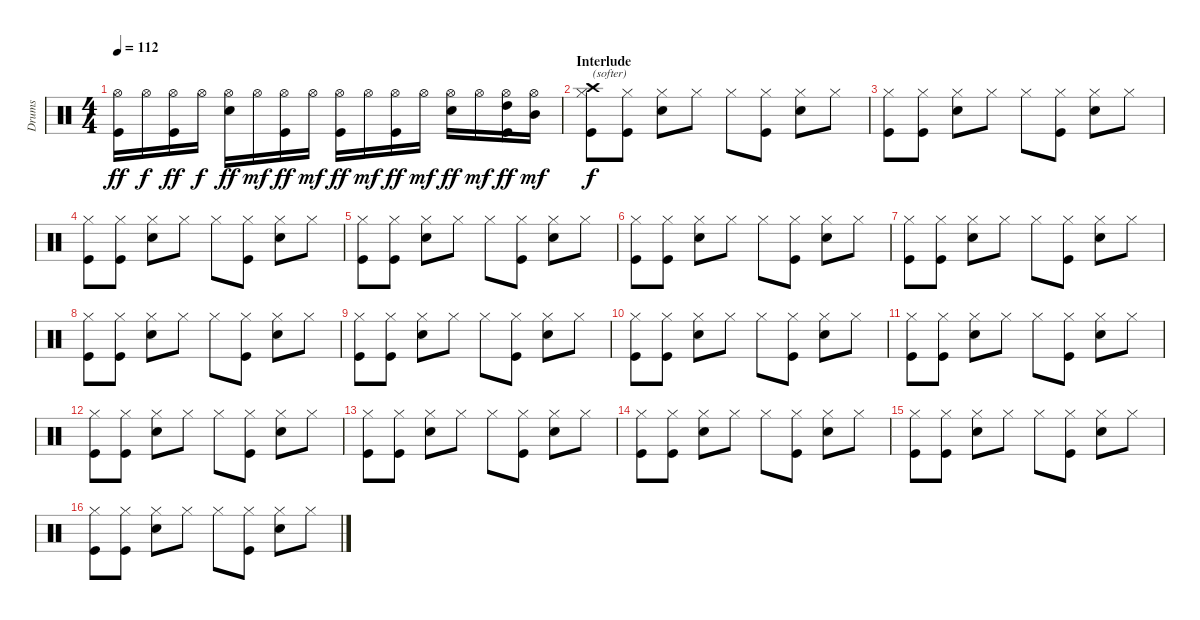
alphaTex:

\track ("Drums" "Drums") {instrument percussion}
\staff {score}
\articulation defaults
\ts (4 4)
\tempo 112
\clef neutral
\ks c
("Hi-Hat (open)" "Kick (hit)").16{dy ff} "Hi-Hat (open)".16{dy f} ("Hi-Hat (open)" "Kick (hit)").16{dy ff} "Hi-Hat (open)".16{dy f} ("Hi-Hat (open)" "Electric Snare (hit)").16{dy ff} "Hi-Hat (open)".16{dy mf} ("Hi-Hat (open)" "Kick (hit)").16{dy ff} "Hi-Hat (open)".16{dy mf} ("Hi-Hat (open)" "Kick (hit)").16{dy ff} "Hi-Hat (open)".16{dy mf} ("Hi-Hat (open)" "Kick (hit)").16{dy ff} "Hi-Hat (open)".16{dy mf} ("Hi-Hat (open)" "Electric Snare (hit)").16{dy ff} "Hi-Hat (open)".16{dy mf} ("Hi-Hat (open)" "High Tom (hit)" "Kick (hit)").16{dy ff} ("Hi-Hat (open)" "Mid Tom (hit)").16{dy mf} |
\section ("" "Interlude")
("Hi-Hat (closed)" "Crash high (hit)" "Kick (hit)").8{txt "(softer)" dy f} ("Hi-Hat (closed)" "Kick (hit)").8 ("Hi-Hat (closed)" "Electric Snare (hit)").8 "Hi-Hat (closed)".8 "Hi-Hat (closed)".8 ("Hi-Hat (closed)" "Kick (hit)").8 ("Hi-Hat (closed)" "Electric Snare (hit)").8 "Hi-Hat (closed)".8 |
("Hi-Hat (closed)" "Kick (hit)").8 ("Hi-Hat (closed)" "Kick (hit)").8 ("Hi-Hat (closed)" "Electric Snare (hit)").8 "Hi-Hat (closed)".8 "Hi-Hat (closed)".8 ("Hi-Hat (closed)" "Kick (hit)").8 ("Hi-Hat (closed)" "Electric Snare (hit)").8 "Hi-Hat (closed)".8 |
("Hi-Hat (closed)" "Kick (hit)").8 ("Hi-Hat (closed)" "Kick (hit)").8 ("Hi-Hat (closed)" "Electric Snare (hit)").8 "Hi-Hat (closed)".8 "Hi-Hat (closed)".8 ("Hi-Hat (closed)" "Kick (hit)").8 ("Hi-Hat (closed)" "Electric Snare (hit)").8 "Hi-Hat (closed)".8 |
("Hi-Hat (closed)" "Kick (hit)").8 ("Hi-Hat (closed)" "Kick (hit)").8 ("Hi-Hat (closed)" "Electric Snare (hit)").8 "Hi-Hat (closed)".8 "Hi-Hat (closed)".8 ("Hi-Hat (closed)" "Kick (hit)").8 ("Hi-Hat (closed)" "Electric Snare (hit)").8 "Hi-Hat (closed)".8 |
("Hi-Hat (closed)" "Kick (hit)").8 ("Hi-Hat (closed)" "Kick (hit)").8 ("Hi-Hat (closed)" "Electric Snare (hit)").8 "Hi-Hat (closed)".8 "Hi-Hat (closed)".8 ("Hi-Hat (closed)" "Kick (hit)").8 ("Hi-Hat (closed)" "Electric Snare (hit)").8 "Hi-Hat (closed)".8 |
("Hi-Hat (closed)" "Kick (hit)").8 ("Hi-Hat (closed)" "Kick (hit)").8 ("Hi-Hat (closed)" "Electric Snare (hit)").8 "Hi-Hat (closed)".8 "Hi-Hat (closed)".8 ("Hi-Hat (closed)" "Kick (hit)").8 ("Hi-Hat (closed)" "Electric Snare (hit)").8 "Hi-Hat (closed)".8 |
("Hi-Hat (closed)" "Kick (hit)").8 ("Hi-Hat (closed)" "Kick (hit)").8 ("Hi-Hat (closed)" "Electric Snare (hit)").8 "Hi-Hat (closed)".8 "Hi-Hat (closed)".8 ("Hi-Hat (closed)" "Kick (hit)").8 ("Hi-Hat (closed)" "Electric Snare (hit)").8 "Hi-Hat (closed)".8 |
("Hi-Hat (closed)" "Kick (hit)").8 ("Hi-Hat (closed)" "Kick (hit)").8 ("Hi-Hat (closed)" "Electric Snare (hit)").8 "Hi-Hat (closed)".8 "Hi-Hat (closed)".8 ("Hi-Hat (closed)" "Kick (hit)").8 ("Hi-Hat (closed)" "Electric Snare (hit)").8 "Hi-Hat (closed)".8 |
("Hi-Hat (closed)" "Kick (hit)").8 ("Hi-Hat (closed)" "Kick (hit)").8 ("Hi-Hat (closed)" "Electric Snare (hit)").8 "Hi-Hat (closed)".8 "Hi-Hat (closed)".8 ("Hi-Hat (closed)" "Kick (hit)").8 ("Hi-Hat (closed)" "Electric Snare (hit)").8 "Hi-Hat (closed)".8 |
("Hi-Hat (closed)" "Kick (hit)").8 ("Hi-Hat (closed)" "Kick (hit)").8 ("Hi-Hat (closed)" "Electric Snare (hit)").8 "Hi-Hat (closed)".8 "Hi-Hat (closed)".8 ("Hi-Hat (closed)" "Kick (hit)").8 ("Hi-Hat (closed)" "Electric Snare (hit)").8 "Hi-Hat (closed)".8 |
("Hi-Hat (closed)" "Kick (hit)").8 ("Hi-Hat (closed)" "Kick (hit)").8 ("Hi-Hat (closed)" "Electric Snare (hit)").8 "Hi-Hat (closed)".8 "Hi-Hat (closed)".8 ("Hi-Hat (closed)" "Kick (hit)").8 ("Hi-Hat (closed)" "Electric Snare (hit)").8 "Hi-Hat (closed)".8 |
("Hi-Hat (closed)" "Kick (hit)").8 ("Hi-Hat (closed)" "Kick (hit)").8 ("Hi-Hat (closed)" "Electric Snare (hit)").8 "Hi-Hat (closed)".8 "Hi-Hat (closed)".8 ("Hi-Hat (closed)" "Kick (hit)").8 ("Hi-Hat (closed)" "Electric Snare (hit)").8 "Hi-Hat (closed)".8 |
("Hi-Hat (closed)" "Kick (hit)").8 ("Hi-Hat (closed)" "Kick (hit)").8 ("Hi-Hat (closed)" "Electric Snare (hit)").8 "Hi-Hat (closed)".8 "Hi-Hat (closed)".8 ("Hi-Hat (closed)" "Kick (hit)").8 ("Hi-Hat (closed)" "Electric Snare (hit)").8 "Hi-Hat (closed)".8 |
("Hi-Hat (closed)" "Kick (hit)").8 ("Hi-Hat (closed)" "Kick (hit)").8 ("Hi-Hat (closed)" "Electric Snare (hit)").8 "Hi-Hat (closed)".8 "Hi-Hat (closed)".8 ("Hi-Hat (closed)" "Kick (hit)").8 ("Hi-Hat (closed)" "Electric Snare (hit)").8 "Hi-Hat (closed)".8 |
("Hi-Hat (closed)" "Kick (hit)").8 ("Hi-Hat (closed)" "Kick (hit)").8 ("Hi-Hat (closed)" "Electric Snare (hit)").8 "Hi-Hat (closed)".8 "Hi-Hat (closed)".8 ("Hi-Hat (closed)" "Kick (hit)").8 ("Hi-Hat (closed)" "Electric Snare (hit)").8 "Hi-Hat (closed)".8
